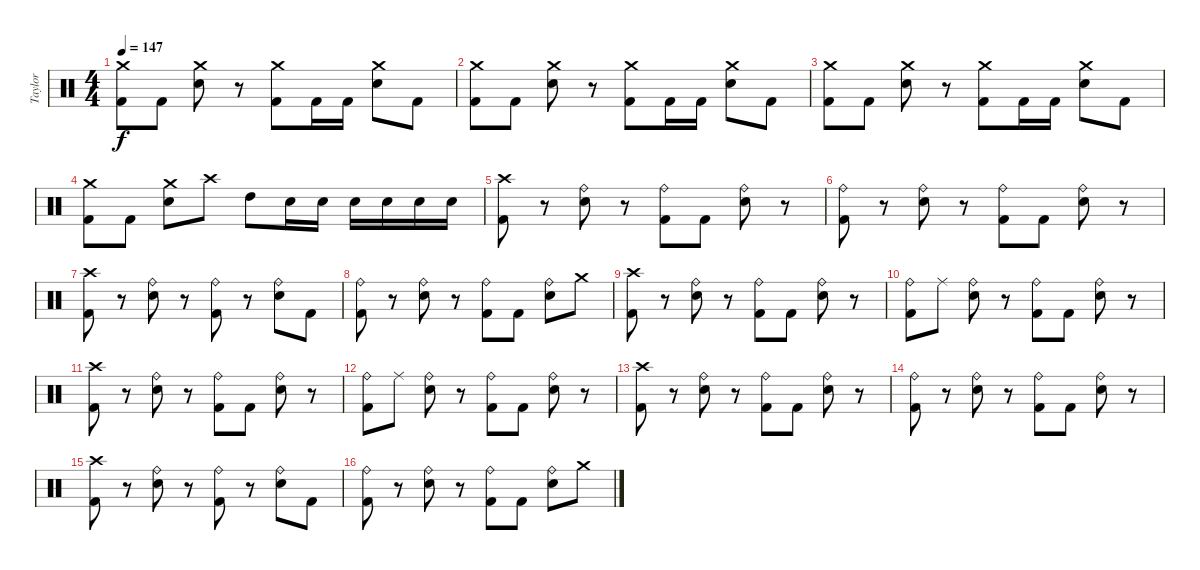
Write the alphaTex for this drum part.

\track ("Taylor" "Taylor") {instrument percussion}
\staff {score}
\articulation defaults
\ts (4 4)
\tempo 147
\clef neutral
\ks c
("Crash medium (hit)" "Kick (hit) 2").8{dy f} "Kick (hit) 2".8 ("Crash medium (hit)" "Electric Snare (hit)").8 r.8 ("Crash medium (hit)" "Kick (hit) 2").8 "Kick (hit) 2".16 "Kick (hit) 2".16 ("Crash medium (hit)" "Electric Snare (hit)").8 "Kick (hit) 2".8 |
("Crash medium (hit)" "Kick (hit) 2").8 "Kick (hit) 2".8 ("Crash medium (hit)" "Electric Snare (hit)").8 r.8 ("Crash medium (hit)" "Kick (hit) 2").8 "Kick (hit) 2".16 "Kick (hit) 2".16 ("Crash medium (hit)" "Electric Snare (hit)").8 "Kick (hit) 2".8 |
("Crash medium (hit)" "Kick (hit) 2").8 "Kick (hit) 2".8 ("Crash medium (hit)" "Electric Snare (hit)").8 r.8 ("Crash medium (hit)" "Kick (hit) 2").8 "Kick (hit) 2".16 "Kick (hit) 2".16 ("Crash medium (hit)" "Electric Snare (hit)").8 "Kick (hit) 2".8 |
("Crash medium (hit)" "Kick (hit) 2").8 "Kick (hit) 2".8 ("Crash medium (hit)" "Electric Snare (hit)").8 "Crash high (hit)".8 "High Tom (hit)".8 "Electric Snare (hit)".16 "Electric Snare (hit)".16 "Electric Snare (hit)".16 "Electric Snare (hit)".16 "Electric Snare (hit)".16 "Electric Snare (hit)".16 |
("Crash high (hit)" "Kick (hit) 2").8 r.8 ("Ride (bell)" "Electric Snare (hit)").8 r.8 ("Ride (bell)" "Kick (hit) 2").8 "Kick (hit) 2".8 ("Ride (bell)" "Electric Snare (hit)").8 r.8 |
("Ride (bell)" "Kick (hit) 2").8 r.8 ("Ride (bell)" "Electric Snare (hit)").8 r.8 ("Ride (bell)" "Kick (hit) 2").8 "Kick (hit) 2".8 ("Ride (bell)" "Electric Snare (hit)").8 r.8 |
("Crash high (hit)" "Kick (hit) 2").8 r.8 ("Ride (bell)" "Electric Snare (hit)").8 r.8 ("Ride (bell)" "Kick (hit) 2").8 r.8 ("Ride (bell)" "Electric Snare (hit)").8 "Kick (hit) 2".8 |
("Ride (bell)" "Kick (hit) 2").8 r.8 ("Ride (bell)" "Electric Snare (hit)").8 r.8 ("Ride (bell)" "Kick (hit) 2").8 "Kick (hit) 2".8 ("Ride (bell)" "Electric Snare (hit)").8 "Crash medium (hit)".8 |
("Crash high (hit)" "Kick (hit) 2").8 r.8 ("Ride (bell)" "Electric Snare (hit)").8 r.8 ("Ride (bell)" "Kick (hit) 2").8 "Kick (hit) 2".8 ("Ride (bell)" "Electric Snare (hit)").8 r.8 |
("Ride (bell)" "Kick (hit) 2").8 "Ride (middle)".8 ("Ride (bell)" "Electric Snare (hit)").8 r.8 ("Ride (bell)" "Kick (hit) 2").8 "Kick (hit) 2".8 ("Ride (bell)" "Electric Snare (hit)").8 r.8 |
("Crash high (hit)" "Kick (hit) 2").8 r.8 ("Ride (bell)" "Electric Snare (hit)").8 r.8 ("Ride (bell)" "Kick (hit) 2").8 "Kick (hit) 2".8 ("Ride (bell)" "Electric Snare (hit)").8 r.8 |
("Ride (bell)" "Kick (hit) 2").8 "Ride (middle)".8 ("Ride (bell)" "Electric Snare (hit)").8 r.8 ("Ride (bell)" "Kick (hit) 2").8 "Kick (hit) 2".8 ("Ride (bell)" "Electric Snare (hit)").8 r.8 |
("Crash high (hit)" "Kick (hit) 2").8 r.8 ("Ride (bell)" "Electric Snare (hit)").8 r.8 ("Ride (bell)" "Kick (hit) 2").8 "Kick (hit) 2".8 ("Ride (bell)" "Electric Snare (hit)").8 r.8 |
("Ride (bell)" "Kick (hit) 2").8 r.8 ("Ride (bell)" "Electric Snare (hit)").8 r.8 ("Ride (bell)" "Kick (hit) 2").8 "Kick (hit) 2".8 ("Ride (bell)" "Electric Snare (hit)").8 r.8 |
("Crash high (hit)" "Kick (hit) 2").8 r.8 ("Ride (bell)" "Electric Snare (hit)").8 r.8 ("Ride (bell)" "Kick (hit) 2").8 r.8 ("Ride (bell)" "Electric Snare (hit)").8 "Kick (hit) 2".8 |
("Ride (bell)" "Kick (hit) 2").8 r.8 ("Ride (bell)" "Electric Snare (hit)").8 r.8 ("Ride (bell)" "Kick (hit) 2").8 "Kick (hit) 2".8 ("Ride (bell)" "Electric Snare (hit)").8 "Crash medium (hit)".8
